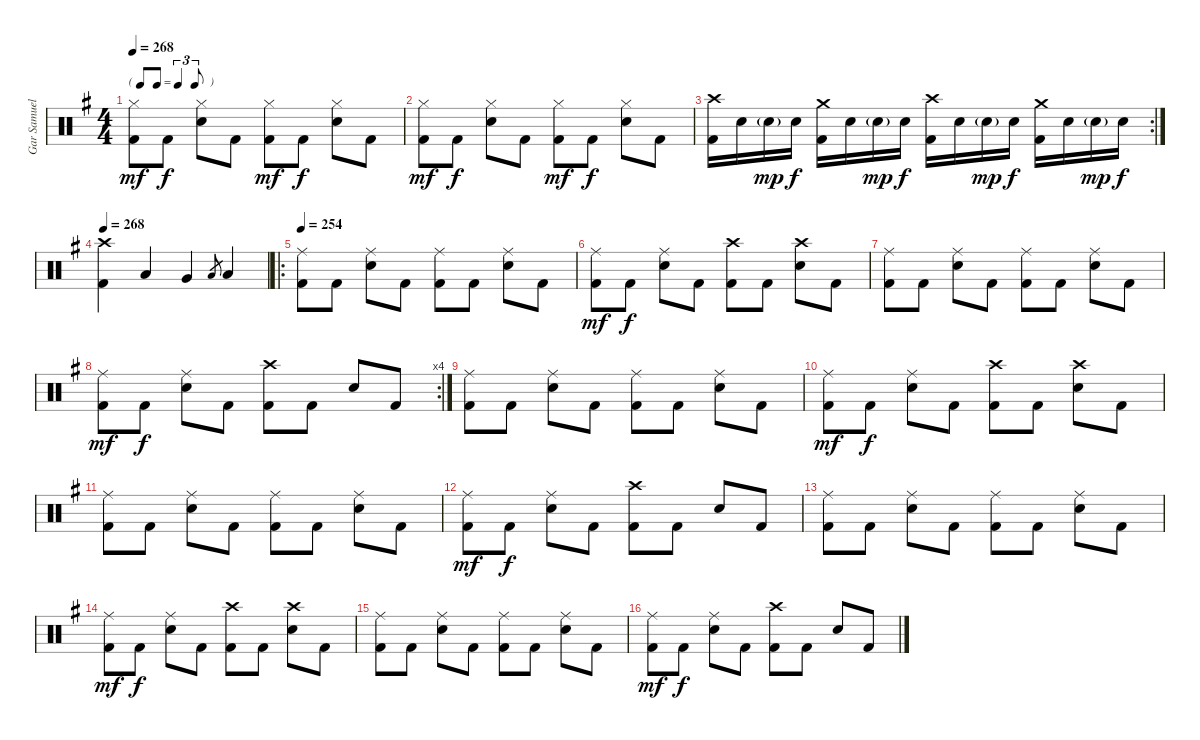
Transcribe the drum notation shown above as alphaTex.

\track ("Gar Samuelson" "Gar Samuel") {instrument percussion}
\staff {score}
\articulation defaults
\ts (4 4)
\tf triplet8th
\tempo 268
\clef neutral
\ks g
("Hi-Hat (closed)" "Kick (hit) 2").8{dy mf} "Kick (hit) 2".8{dy f} ("Hi-Hat (closed)" "Snare (hit) 2").8 "Kick (hit) 2".8 ("Hi-Hat (closed)" "Kick (hit) 2").8{dy mf} "Kick (hit) 2".8{dy f} ("Hi-Hat (closed)" "Snare (hit) 2").8 "Kick (hit) 2".8 |
("Hi-Hat (closed)" "Kick (hit) 2").8{dy mf} "Kick (hit) 2".8{dy f} ("Hi-Hat (closed)" "Snare (hit) 2").8 "Kick (hit) 2".8 ("Hi-Hat (closed)" "Kick (hit) 2").8{dy mf} "Kick (hit) 2".8{dy f} ("Hi-Hat (closed)" "Snare (hit) 2").8 "Kick (hit) 2".8 |
\rc 2
("Crash high (hit)" "Kick (hit) 2").16 "Snare (hit) 2".16 "Snare (hit) 2"{g}.16{dy mp} "Snare (hit) 2".16{dy f} ("Crash medium (hit)" "Kick (hit) 2").16 "Snare (hit) 2".16 "Snare (hit) 2"{g}.16{dy mp} "Snare (hit) 2".16{dy f} ("Crash high (hit)" "Kick (hit) 2").16 "Snare (hit) 2".16 "Snare (hit) 2"{g}.16{dy mp} "Snare (hit) 2".16{dy f} ("Crash medium (hit)" "Kick (hit) 2").16 "Snare (hit) 2".16 "Snare (hit) 2"{g}.16{dy mp} "Snare (hit) 2".16{dy f} |
\tempo 268
("Crash high (hit)" "Kick (hit) 2").4 "Low Tom (hit)".4 "Very Low Tom (hit)".4 "Low Floor Tom (hit)".8{gr} "Low Floor Tom (hit)".4 |
\ro
\tempo 254
("Ride (middle)" "Kick (hit) 2").8 "Kick (hit) 2".8 ("Ride (middle)" "Snare (hit) 2").8 "Kick (hit) 2".8 ("Ride (middle)" "Kick (hit) 2").8 "Kick (hit) 2".8 ("Ride (middle)" "Snare (hit) 2").8 "Kick (hit) 2".8 |
("Ride (middle)" "Kick (hit) 2").8{dy mf} "Kick (hit) 2".8{dy f} ("Ride (middle)" "Snare (hit) 2").8 "Kick (hit) 2".8 ("Crash high (hit)" "Kick (hit) 2").8 "Kick (hit) 2".8 ("Crash high (hit)" "Snare (hit) 2").8 "Kick (hit) 2".8 |
("Ride (middle)" "Kick (hit) 2").8 "Kick (hit) 2".8 ("Ride (middle)" "Snare (hit) 2").8 "Kick (hit) 2".8 ("Ride (middle)" "Kick (hit) 2").8 "Kick (hit) 2".8 ("Ride (middle)" "Snare (hit) 2").8 "Kick (hit) 2".8 |
\rc 4
("Ride (middle)" "Kick (hit) 2").8{dy mf} "Kick (hit) 2".8{dy f} ("Ride (middle)" "Snare (hit) 2").8 "Kick (hit) 2".8 ("Crash high (hit)" "Kick (hit) 2").8 "Kick (hit) 2".8 "Snare (hit) 2".8 "Kick (hit) 2".8 |
("Ride (middle)" "Kick (hit) 2").8 "Kick (hit) 2".8 ("Ride (middle)" "Snare (hit) 2").8 "Kick (hit) 2".8 ("Ride (middle)" "Kick (hit) 2").8 "Kick (hit) 2".8 ("Ride (middle)" "Snare (hit) 2").8 "Kick (hit) 2".8 |
("Ride (middle)" "Kick (hit) 2").8{dy mf} "Kick (hit) 2".8{dy f} ("Ride (middle)" "Snare (hit) 2").8 "Kick (hit) 2".8 ("Crash high (hit)" "Kick (hit) 2").8 "Kick (hit) 2".8 ("Crash high (hit)" "Snare (hit) 2").8 "Kick (hit) 2".8 |
("Ride (middle)" "Kick (hit) 2").8 "Kick (hit) 2".8 ("Ride (middle)" "Snare (hit) 2").8 "Kick (hit) 2".8 ("Ride (middle)" "Kick (hit) 2").8 "Kick (hit) 2".8 ("Ride (middle)" "Snare (hit) 2").8 "Kick (hit) 2".8 |
("Ride (middle)" "Kick (hit) 2").8{dy mf} "Kick (hit) 2".8{dy f} ("Ride (middle)" "Snare (hit) 2").8 "Kick (hit) 2".8 ("Crash high (hit)" "Kick (hit) 2").8 "Kick (hit) 2".8 "Snare (hit) 2".8 "Kick (hit) 2".8 |
("Ride (middle)" "Kick (hit) 2").8 "Kick (hit) 2".8 ("Ride (middle)" "Snare (hit) 2").8 "Kick (hit) 2".8 ("Ride (middle)" "Kick (hit) 2").8 "Kick (hit) 2".8 ("Ride (middle)" "Snare (hit) 2").8 "Kick (hit) 2".8 |
("Ride (middle)" "Kick (hit) 2").8{dy mf} "Kick (hit) 2".8{dy f} ("Ride (middle)" "Snare (hit) 2").8 "Kick (hit) 2".8 ("Crash high (hit)" "Kick (hit) 2").8 "Kick (hit) 2".8 ("Crash high (hit)" "Snare (hit) 2").8 "Kick (hit) 2".8 |
("Ride (middle)" "Kick (hit) 2").8 "Kick (hit) 2".8 ("Ride (middle)" "Snare (hit) 2").8 "Kick (hit) 2".8 ("Ride (middle)" "Kick (hit) 2").8 "Kick (hit) 2".8 ("Ride (middle)" "Snare (hit) 2").8 "Kick (hit) 2".8 |
("Ride (middle)" "Kick (hit) 2").8{dy mf} "Kick (hit) 2".8{dy f} ("Ride (middle)" "Snare (hit) 2").8 "Kick (hit) 2".8 ("Crash high (hit)" "Kick (hit) 2").8 "Kick (hit) 2".8 "Snare (hit) 2".8 "Kick (hit) 2".8
